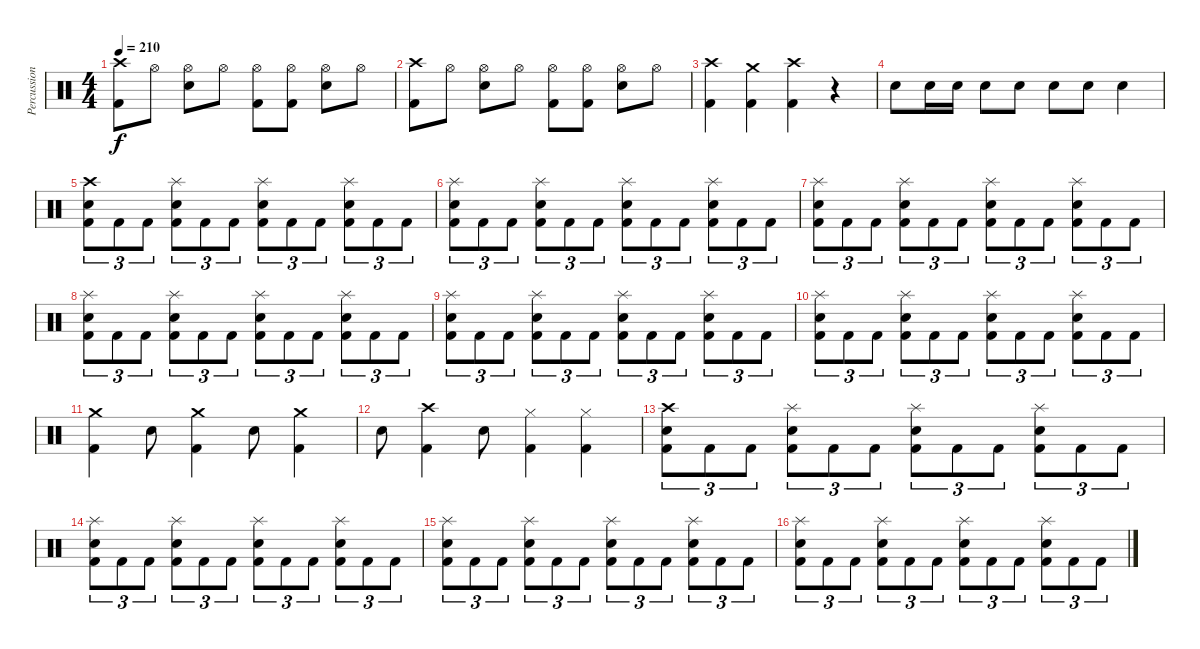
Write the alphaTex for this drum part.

\track ("Percussion" "Percussion") {instrument percussion}
\staff {score}
\articulation defaults
\ts (4 4)
\tempo 210
\clef neutral
\ks c
("Crash high (hit)" "Kick (hit) 2").8{dy f} "Hi-Hat (open)".8 ("Hi-Hat (open)" "Snare (hit) 2").8 "Hi-Hat (open)".8 ("Hi-Hat (open)" "Kick (hit) 2").8 ("Hi-Hat (open)" "Kick (hit) 2").8 ("Hi-Hat (open)" "Snare (hit) 2").8 "Hi-Hat (open)".8 |
("Crash high (hit)" "Kick (hit) 2").8 "Hi-Hat (open)".8 ("Hi-Hat (open)" "Snare (hit) 2").8 "Hi-Hat (open)".8 ("Hi-Hat (open)" "Kick (hit) 2").8 ("Hi-Hat (open)" "Kick (hit) 2").8 ("Hi-Hat (open)" "Snare (hit) 2").8 "Hi-Hat (open)".8 |
("Crash high (hit)" "Kick (hit) 2").4 ("Crash medium (hit)" "Kick (hit) 2").4 ("Crash high (hit)" "Kick (hit) 2").4 r.4 |
"Snare (hit) 2".8 "Snare (hit) 2".16 "Snare (hit) 2".16 "Snare (hit) 2".8 "Snare (hit) 2".8 "Snare (hit) 2".8 "Snare (hit) 2".8 "Snare (hit) 2".4 |
("Crash high (hit)" "Snare (hit) 2" "Kick (hit) 2").8{tu (3 2)} "Kick (hit) 2".8{tu (3 2)} "Kick (hit) 2".8{tu (3 2)} ("Splash (hit)" "Snare (hit) 2" "Kick (hit) 2").8{tu (3 2)} "Kick (hit) 2".8{tu (3 2)} "Kick (hit) 2".8{tu (3 2)} ("Splash (hit)" "Snare (hit) 2" "Kick (hit) 2").8{tu (3 2)} "Kick (hit) 2".8{tu (3 2)} "Kick (hit) 2".8{tu (3 2)} ("Splash (hit)" "Snare (hit) 2" "Kick (hit) 2").8{tu (3 2)} "Kick (hit) 2".8{tu (3 2)} "Kick (hit) 2".8{tu (3 2)} |
("Splash (hit)" "Snare (hit) 2" "Kick (hit) 2").8{tu (3 2)} "Kick (hit) 2".8{tu (3 2)} "Kick (hit) 2".8{tu (3 2)} ("Splash (hit)" "Snare (hit) 2" "Kick (hit) 2").8{tu (3 2)} "Kick (hit) 2".8{tu (3 2)} "Kick (hit) 2".8{tu (3 2)} ("Splash (hit)" "Snare (hit) 2" "Kick (hit) 2").8{tu (3 2)} "Kick (hit) 2".8{tu (3 2)} "Kick (hit) 2".8{tu (3 2)} ("Splash (hit)" "Snare (hit) 2" "Kick (hit) 2").8{tu (3 2)} "Kick (hit) 2".8{tu (3 2)} "Kick (hit) 2".8{tu (3 2)} |
("Splash (hit)" "Snare (hit) 2" "Kick (hit) 2").8{tu (3 2)} "Kick (hit) 2".8{tu (3 2)} "Kick (hit) 2".8{tu (3 2)} ("Splash (hit)" "Snare (hit) 2" "Kick (hit) 2").8{tu (3 2)} "Kick (hit) 2".8{tu (3 2)} "Kick (hit) 2".8{tu (3 2)} ("Splash (hit)" "Snare (hit) 2" "Kick (hit) 2").8{tu (3 2)} "Kick (hit) 2".8{tu (3 2)} "Kick (hit) 2".8{tu (3 2)} ("Splash (hit)" "Snare (hit) 2" "Kick (hit) 2").8{tu (3 2)} "Kick (hit) 2".8{tu (3 2)} "Kick (hit) 2".8{tu (3 2)} |
("Splash (hit)" "Snare (hit) 2" "Kick (hit) 2").8{tu (3 2)} "Kick (hit) 2".8{tu (3 2)} "Kick (hit) 2".8{tu (3 2)} ("Splash (hit)" "Snare (hit) 2" "Kick (hit) 2").8{tu (3 2)} "Kick (hit) 2".8{tu (3 2)} "Kick (hit) 2".8{tu (3 2)} ("Splash (hit)" "Snare (hit) 2" "Kick (hit) 2").8{tu (3 2)} "Kick (hit) 2".8{tu (3 2)} "Kick (hit) 2".8{tu (3 2)} ("Splash (hit)" "Snare (hit) 2" "Kick (hit) 2").8{tu (3 2)} "Kick (hit) 2".8{tu (3 2)} "Kick (hit) 2".8{tu (3 2)} |
("Splash (hit)" "Snare (hit) 2" "Kick (hit) 2").8{tu (3 2)} "Kick (hit) 2".8{tu (3 2)} "Kick (hit) 2".8{tu (3 2)} ("Splash (hit)" "Snare (hit) 2" "Kick (hit) 2").8{tu (3 2)} "Kick (hit) 2".8{tu (3 2)} "Kick (hit) 2".8{tu (3 2)} ("Splash (hit)" "Snare (hit) 2" "Kick (hit) 2").8{tu (3 2)} "Kick (hit) 2".8{tu (3 2)} "Kick (hit) 2".8{tu (3 2)} ("Splash (hit)" "Snare (hit) 2" "Kick (hit) 2").8{tu (3 2)} "Kick (hit) 2".8{tu (3 2)} "Kick (hit) 2".8{tu (3 2)} |
("Splash (hit)" "Snare (hit) 2" "Kick (hit) 2").8{tu (3 2)} "Kick (hit) 2".8{tu (3 2)} "Kick (hit) 2".8{tu (3 2)} ("Splash (hit)" "Snare (hit) 2" "Kick (hit) 2").8{tu (3 2)} "Kick (hit) 2".8{tu (3 2)} "Kick (hit) 2".8{tu (3 2)} ("Splash (hit)" "Snare (hit) 2" "Kick (hit) 2").8{tu (3 2)} "Kick (hit) 2".8{tu (3 2)} "Kick (hit) 2".8{tu (3 2)} ("Splash (hit)" "Snare (hit) 2" "Kick (hit) 2").8{tu (3 2)} "Kick (hit) 2".8{tu (3 2)} "Kick (hit) 2".8{tu (3 2)} |
("Crash medium (hit)" "Kick (hit) 2").4 "Snare (hit) 2".8 ("Crash medium (hit)" "Kick (hit) 2").4 "Snare (hit) 2".8 ("Crash medium (hit)" "Kick (hit) 2").4 |
"Snare (hit) 2".8 ("Crash high (hit)" "Kick (hit) 2").4 "Snare (hit) 2".8 ("Hi-Hat (closed)" "Kick (hit) 2").4 ("Hi-Hat (closed)" "Kick (hit) 2").4 |
("Crash high (hit)" "Snare (hit) 2" "Kick (hit) 2").8{tu (3 2)} "Kick (hit) 2".8{tu (3 2)} "Kick (hit) 2".8{tu (3 2)} ("Splash (hit)" "Snare (hit) 2" "Kick (hit) 2").8{tu (3 2)} "Kick (hit) 2".8{tu (3 2)} "Kick (hit) 2".8{tu (3 2)} ("Splash (hit)" "Snare (hit) 2" "Kick (hit) 2").8{tu (3 2)} "Kick (hit) 2".8{tu (3 2)} "Kick (hit) 2".8{tu (3 2)} ("Splash (hit)" "Snare (hit) 2" "Kick (hit) 2").8{tu (3 2)} "Kick (hit) 2".8{tu (3 2)} "Kick (hit) 2".8{tu (3 2)} |
("Splash (hit)" "Snare (hit) 2" "Kick (hit) 2").8{tu (3 2)} "Kick (hit) 2".8{tu (3 2)} "Kick (hit) 2".8{tu (3 2)} ("Splash (hit)" "Snare (hit) 2" "Kick (hit) 2").8{tu (3 2)} "Kick (hit) 2".8{tu (3 2)} "Kick (hit) 2".8{tu (3 2)} ("Splash (hit)" "Snare (hit) 2" "Kick (hit) 2").8{tu (3 2)} "Kick (hit) 2".8{tu (3 2)} "Kick (hit) 2".8{tu (3 2)} ("Splash (hit)" "Snare (hit) 2" "Kick (hit) 2").8{tu (3 2)} "Kick (hit) 2".8{tu (3 2)} "Kick (hit) 2".8{tu (3 2)} |
("Splash (hit)" "Snare (hit) 2" "Kick (hit) 2").8{tu (3 2)} "Kick (hit) 2".8{tu (3 2)} "Kick (hit) 2".8{tu (3 2)} ("Splash (hit)" "Snare (hit) 2" "Kick (hit) 2").8{tu (3 2)} "Kick (hit) 2".8{tu (3 2)} "Kick (hit) 2".8{tu (3 2)} ("Splash (hit)" "Snare (hit) 2" "Kick (hit) 2").8{tu (3 2)} "Kick (hit) 2".8{tu (3 2)} "Kick (hit) 2".8{tu (3 2)} ("Splash (hit)" "Snare (hit) 2" "Kick (hit) 2").8{tu (3 2)} "Kick (hit) 2".8{tu (3 2)} "Kick (hit) 2".8{tu (3 2)} |
("Splash (hit)" "Snare (hit) 2" "Kick (hit) 2").8{tu (3 2)} "Kick (hit) 2".8{tu (3 2)} "Kick (hit) 2".8{tu (3 2)} ("Splash (hit)" "Snare (hit) 2" "Kick (hit) 2").8{tu (3 2)} "Kick (hit) 2".8{tu (3 2)} "Kick (hit) 2".8{tu (3 2)} ("Splash (hit)" "Snare (hit) 2" "Kick (hit) 2").8{tu (3 2)} "Kick (hit) 2".8{tu (3 2)} "Kick (hit) 2".8{tu (3 2)} ("Splash (hit)" "Snare (hit) 2" "Kick (hit) 2").8{tu (3 2)} "Kick (hit) 2".8{tu (3 2)} "Kick (hit) 2".8{tu (3 2)}
